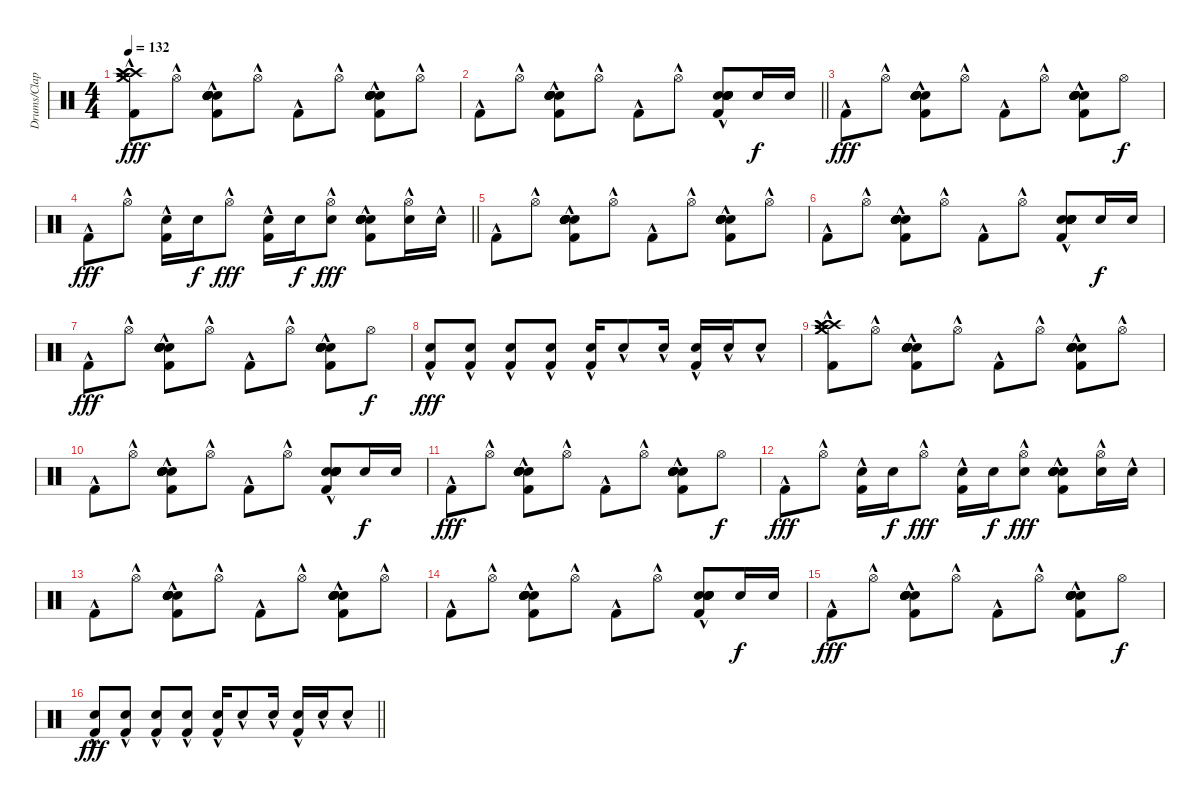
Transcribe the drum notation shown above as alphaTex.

\track ("Drums/Claps" "Drums/Clap") {instrument percussion}
\staff {score}
\articulation defaults
\ts (4 4)
\tempo 132
\clef neutral
\ks c
("Crash high (hit)"{hac} "Crash high (hit)"{hac} "Crash high (hit)"{hac} "Crash medium (hit)"{hac} "Crash medium (hit)"{hac} "Kick (hit) 2"{hac}).8{dy fff} "Hi-Hat (open)"{hac}.8 ("Hand Clap (hit)"{hac} "Hand Clap (hit)"{hac} "Hand Clap (hit)"{hac} "Snare (hit) 2"{hac} "Hand Clap (hit)"{hac} "Kick (hit) 2"{hac}).8 "Hi-Hat (open)"{hac}.8 "Kick (hit) 2"{hac}.8 "Hi-Hat (open)"{hac}.8 ("Hand Clap (hit)"{hac} "Hand Clap (hit)"{hac} "Hand Clap (hit)"{hac} "Snare (hit) 2"{hac} "Hand Clap (hit)"{hac} "Kick (hit) 2"{hac}).8 "Hi-Hat (open)"{hac}.8 |
\barLineRight lightlight "Kick (hit) 2"{hac}.8 "Hi-Hat (open)"{hac}.8
("Hand Clap (hit)"{hac} "Hand Clap (hit)"{hac} "Hand Clap (hit)"{hac} "Snare (hit) 2"{hac} "Hand Clap (hit)"{hac} "Kick (hit) 2"{hac}).8 "Hi-Hat (open)"{hac}.8 "Kick (hit) 2"{hac}.8 "Hi-Hat (open)"{hac}.8 ("Hand Clap (hit)"{hac} "Hand Clap (hit)"{hac} "Hand Clap (hit)"{hac} "Snare (hit) 2"{hac} "Hand Clap (hit)"{hac} "Kick (hit) 2"{hac}).8 "Snare (hit) 2".16{dy f} "Snare (hit) 2".16 |
"Kick (hit) 2"{hac}.8{dy fff} "Hi-Hat (open)"{hac}.8 ("Hand Clap (hit)"{hac} "Hand Clap (hit)"{hac} "Hand Clap (hit)"{hac} "Snare (hit) 2"{hac} "Hand Clap (hit)"{hac} "Kick (hit) 2"{hac}).8 "Hi-Hat (open)"{hac}.8 "Kick (hit) 2"{hac}.8 "Hi-Hat (open)"{hac}.8 ("Hand Clap (hit)"{hac} "Hand Clap (hit)"{hac} "Hand Clap (hit)"{hac} "Snare (hit) 2"{hac} "Hand Clap (hit)"{hac} "Kick (hit) 2"{hac}).8 "Hi-Hat (open)".8{dy f} |
\barLineRight lightlight "Kick (hit) 2"{hac}.8{dy fff} "Hi-Hat (open)"{hac}.8
("Snare (hit) 2"{hac} "Kick (hit) 2"{hac}).16 "Snare (hit) 2".16{dy f} "Hi-Hat (open)"{hac}.8{dy fff} ("Snare (hit) 2" "Kick (hit) 2"{hac}).16 "Snare (hit) 2".16{dy f} ("Hi-Hat (open)"{hac} "Snare (hit) 2"{hac}).8{dy fff} ("Hand Clap (hit)"{hac} "Hand Clap (hit)"{hac} "Hand Clap (hit)"{hac} "Snare (hit) 2"{hac} "Hand Clap (hit)"{hac} "Kick (hit) 2"{hac}).8 ("Hi-Hat (open)" "Snare (hit) 2"{hac}).16 "Snare (hit) 2"{hac}.16 |
"Kick (hit) 2"{hac}.8 "Hi-Hat (open)"{hac}.8 ("Hand Clap (hit)"{hac} "Hand Clap (hit)"{hac} "Hand Clap (hit)"{hac} "Snare (hit) 2"{hac} "Hand Clap (hit)"{hac} "Kick (hit) 2"{hac}).8 "Hi-Hat (open)"{hac}.8 "Kick (hit) 2"{hac}.8 "Hi-Hat (open)"{hac}.8 ("Hand Clap (hit)"{hac} "Hand Clap (hit)"{hac} "Hand Clap (hit)"{hac} "Snare (hit) 2"{hac} "Hand Clap (hit)"{hac} "Kick (hit) 2"{hac}).8 "Hi-Hat (open)"{hac}.8 |
"Kick (hit) 2"{hac}.8 "Hi-Hat (open)"{hac}.8 ("Hand Clap (hit)"{hac} "Hand Clap (hit)"{hac} "Hand Clap (hit)"{hac} "Snare (hit) 2"{hac} "Hand Clap (hit)"{hac} "Kick (hit) 2"{hac}).8 "Hi-Hat (open)"{hac}.8 "Kick (hit) 2"{hac}.8 "Hi-Hat (open)"{hac}.8 ("Hand Clap (hit)"{hac} "Hand Clap (hit)"{hac} "Hand Clap (hit)"{hac} "Snare (hit) 2"{hac} "Hand Clap (hit)"{hac} "Kick (hit) 2"{hac}).8 "Snare (hit) 2".16{dy f} "Snare (hit) 2".16 |
"Kick (hit) 2"{hac}.8{dy fff} "Hi-Hat (open)"{hac}.8 ("Hand Clap (hit)"{hac} "Hand Clap (hit)"{hac} "Hand Clap (hit)"{hac} "Snare (hit) 2"{hac} "Hand Clap (hit)"{hac} "Kick (hit) 2"{hac}).8 "Hi-Hat (open)"{hac}.8 "Kick (hit) 2"{hac}.8 "Hi-Hat (open)"{hac}.8 ("Hand Clap (hit)"{hac} "Hand Clap (hit)"{hac} "Hand Clap (hit)"{hac} "Snare (hit) 2"{hac} "Hand Clap (hit)"{hac} "Kick (hit) 2"{hac}).8 "Hi-Hat (open)".8{dy f} |
("Snare (hit) 2"{hac} "Kick (hit) 2").8{dy fff} ("Snare (hit) 2"{hac} "Kick (hit) 2").8 ("Snare (hit) 2"{hac} "Kick (hit) 2").8 ("Snare (hit) 2"{hac} "Kick (hit) 2").8 ("Snare (hit) 2"{hac} "Kick (hit) 2").16 "Snare (hit) 2"{hac}.8 "Snare (hit) 2"{hac}.16 ("Snare (hit) 2"{hac} "Kick (hit) 2").16 "Snare (hit) 2"{hac}.16 "Snare (hit) 2"{hac}.8 |
("Crash high (hit)"{hac} "Crash high (hit)"{hac} "Crash high (hit)"{hac} "Crash medium (hit)"{hac} "Crash medium (hit)"{hac} "Kick (hit) 2"{hac}).8 "Hi-Hat (open)"{hac}.8 ("Hand Clap (hit)"{hac} "Hand Clap (hit)"{hac} "Hand Clap (hit)"{hac} "Snare (hit) 2"{hac} "Hand Clap (hit)"{hac} "Kick (hit) 2"{hac}).8 "Hi-Hat (open)"{hac}.8 "Kick (hit) 2"{hac}.8 "Hi-Hat (open)"{hac}.8 ("Hand Clap (hit)"{hac} "Hand Clap (hit)"{hac} "Hand Clap (hit)"{hac} "Snare (hit) 2"{hac} "Hand Clap (hit)"{hac} "Kick (hit) 2"{hac}).8 "Hi-Hat (open)"{hac}.8 |
"Kick (hit) 2"{hac}.8 "Hi-Hat (open)"{hac}.8 ("Hand Clap (hit)"{hac} "Hand Clap (hit)"{hac} "Hand Clap (hit)"{hac} "Snare (hit) 2"{hac} "Hand Clap (hit)"{hac} "Kick (hit) 2"{hac}).8 "Hi-Hat (open)"{hac}.8 "Kick (hit) 2"{hac}.8 "Hi-Hat (open)"{hac}.8 ("Hand Clap (hit)"{hac} "Hand Clap (hit)"{hac} "Hand Clap (hit)"{hac} "Snare (hit) 2"{hac} "Hand Clap (hit)"{hac} "Kick (hit) 2"{hac}).8 "Snare (hit) 2".16{dy f} "Snare (hit) 2".16 |
"Kick (hit) 2"{hac}.8{dy fff} "Hi-Hat (open)"{hac}.8 ("Hand Clap (hit)"{hac} "Hand Clap (hit)"{hac} "Hand Clap (hit)"{hac} "Snare (hit) 2"{hac} "Hand Clap (hit)"{hac} "Kick (hit) 2"{hac}).8 "Hi-Hat (open)"{hac}.8 "Kick (hit) 2"{hac}.8 "Hi-Hat (open)"{hac}.8 ("Hand Clap (hit)"{hac} "Hand Clap (hit)"{hac} "Hand Clap (hit)"{hac} "Snare (hit) 2"{hac} "Hand Clap (hit)"{hac} "Kick (hit) 2"{hac}).8 "Hi-Hat (open)".8{dy f} |
"Kick (hit) 2"{hac}.8{dy fff} "Hi-Hat (open)"{hac}.8 ("Snare (hit) 2"{hac} "Kick (hit) 2"{hac}).16 "Snare (hit) 2".16{dy f} "Hi-Hat (open)"{hac}.8{dy fff} ("Snare (hit) 2" "Kick (hit) 2"{hac}).16 "Snare (hit) 2".16{dy f} ("Hi-Hat (open)"{hac} "Snare (hit) 2"{hac}).8{dy fff} ("Hand Clap (hit)"{hac} "Hand Clap (hit)"{hac} "Hand Clap (hit)"{hac} "Snare (hit) 2"{hac} "Hand Clap (hit)"{hac} "Kick (hit) 2"{hac}).8 ("Hi-Hat (open)" "Snare (hit) 2"{hac}).16 "Snare (hit) 2"{hac}.16 |
"Kick (hit) 2"{hac}.8 "Hi-Hat (open)"{hac}.8 ("Hand Clap (hit)"{hac} "Hand Clap (hit)"{hac} "Hand Clap (hit)"{hac} "Snare (hit) 2"{hac} "Hand Clap (hit)"{hac} "Kick (hit) 2"{hac}).8 "Hi-Hat (open)"{hac}.8 "Kick (hit) 2"{hac}.8 "Hi-Hat (open)"{hac}.8 ("Hand Clap (hit)"{hac} "Hand Clap (hit)"{hac} "Hand Clap (hit)"{hac} "Snare (hit) 2"{hac} "Hand Clap (hit)"{hac} "Kick (hit) 2"{hac}).8 "Hi-Hat (open)"{hac}.8 |
"Kick (hit) 2"{hac}.8 "Hi-Hat (open)"{hac}.8 ("Hand Clap (hit)"{hac} "Hand Clap (hit)"{hac} "Hand Clap (hit)"{hac} "Snare (hit) 2"{hac} "Hand Clap (hit)"{hac} "Kick (hit) 2"{hac}).8 "Hi-Hat (open)"{hac}.8 "Kick (hit) 2"{hac}.8 "Hi-Hat (open)"{hac}.8 ("Hand Clap (hit)"{hac} "Hand Clap (hit)"{hac} "Hand Clap (hit)"{hac} "Snare (hit) 2"{hac} "Hand Clap (hit)"{hac} "Kick (hit) 2"{hac}).8 "Snare (hit) 2".16{dy f} "Snare (hit) 2".16 |
"Kick (hit) 2"{hac}.8{dy fff} "Hi-Hat (open)"{hac}.8 ("Hand Clap (hit)"{hac} "Hand Clap (hit)"{hac} "Hand Clap (hit)"{hac} "Snare (hit) 2"{hac} "Hand Clap (hit)"{hac} "Kick (hit) 2"{hac}).8 "Hi-Hat (open)"{hac}.8 "Kick (hit) 2"{hac}.8 "Hi-Hat (open)"{hac}.8 ("Hand Clap (hit)"{hac} "Hand Clap (hit)"{hac} "Hand Clap (hit)"{hac} "Snare (hit) 2"{hac} "Hand Clap (hit)"{hac} "Kick (hit) 2"{hac}).8 "Hi-Hat (open)".8{dy f} |
\barLineRight lightlight
("Snare (hit) 2"{hac} "Kick (hit) 2").8{dy fff} ("Snare (hit) 2"{hac} "Kick (hit) 2").8 ("Snare (hit) 2"{hac} "Kick (hit) 2").8 ("Snare (hit) 2"{hac} "Kick (hit) 2").8 ("Snare (hit) 2"{hac} "Kick (hit) 2").16 "Snare (hit) 2"{hac}.8 "Snare (hit) 2"{hac}.16 ("Snare (hit) 2"{hac} "Kick (hit) 2").16 "Snare (hit) 2"{hac}.16 "Snare (hit) 2"{hac}.8
